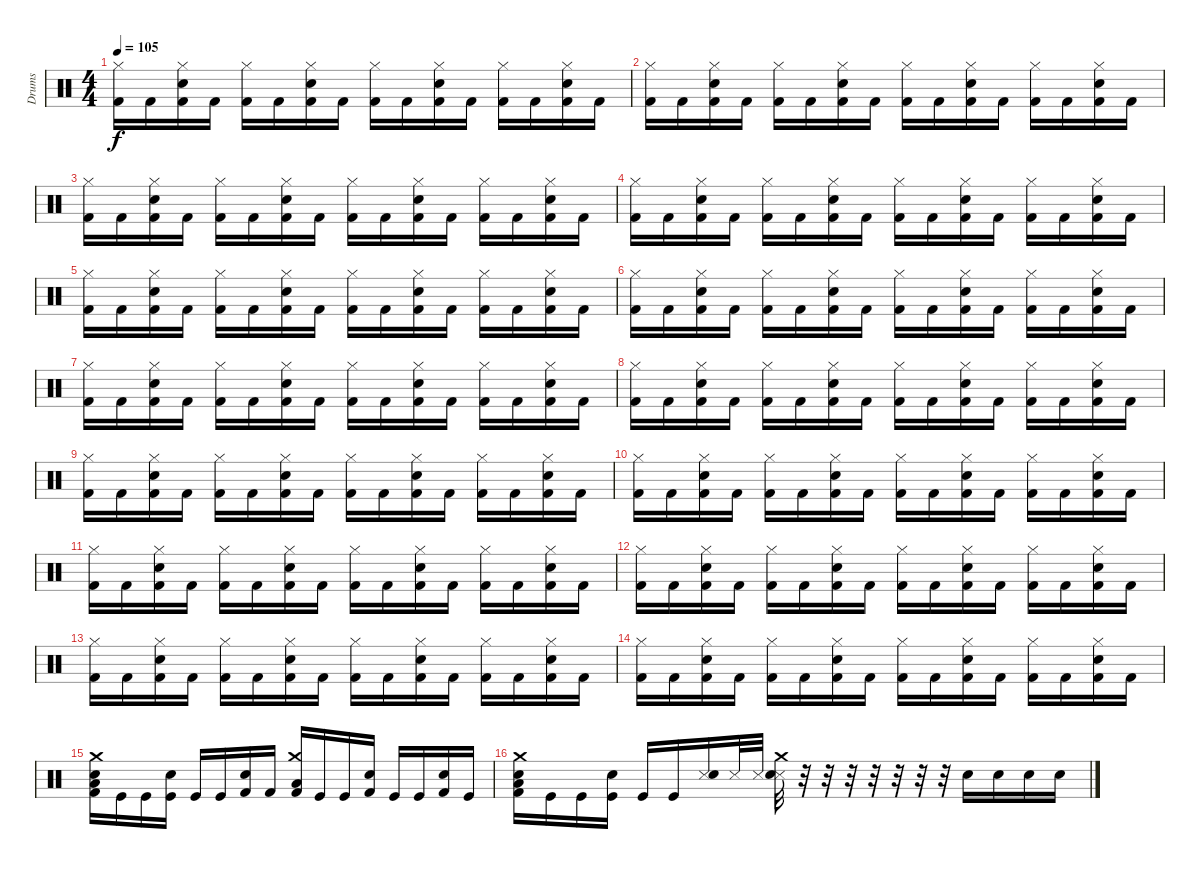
\track ("Drums" "Drums") {instrument percussion}
\staff {score}
\articulation defaults
\ts (4 4)
\tempo 105
\clef neutral
\ks c
("Kick (hit) 2" "Hi-Hat (closed)").16{dy f} "Kick (hit) 2".16 ("Kick (hit) 2" "Snare (hit) 2" "Hi-Hat (closed)").16 "Kick (hit) 2".16 ("Kick (hit) 2" "Hi-Hat (closed)").16 "Kick (hit) 2".16 ("Kick (hit) 2" "Snare (hit) 2" "Hi-Hat (closed)").16 "Kick (hit) 2".16 ("Kick (hit) 2" "Hi-Hat (closed)").16 "Kick (hit) 2".16 ("Kick (hit) 2" "Snare (hit) 2" "Hi-Hat (closed)").16 "Kick (hit) 2".16 ("Kick (hit) 2" "Hi-Hat (closed)").16 "Kick (hit) 2".16 ("Kick (hit) 2" "Snare (hit) 2" "Hi-Hat (closed)").16 "Kick (hit) 2".16 |
("Kick (hit) 2" "Hi-Hat (closed)").16 "Kick (hit) 2".16 ("Kick (hit) 2" "Snare (hit) 2" "Hi-Hat (closed)").16 "Kick (hit) 2".16 ("Kick (hit) 2" "Hi-Hat (closed)").16 "Kick (hit) 2".16 ("Kick (hit) 2" "Snare (hit) 2" "Hi-Hat (closed)").16 "Kick (hit) 2".16 ("Kick (hit) 2" "Hi-Hat (closed)").16 "Kick (hit) 2".16 ("Kick (hit) 2" "Snare (hit) 2" "Hi-Hat (closed)").16 "Kick (hit) 2".16 ("Kick (hit) 2" "Hi-Hat (closed)").16 "Kick (hit) 2".16 ("Kick (hit) 2" "Snare (hit) 2" "Hi-Hat (closed)").16 "Kick (hit) 2".16 |
("Kick (hit) 2" "Hi-Hat (closed)").16 "Kick (hit) 2".16 ("Kick (hit) 2" "Snare (hit) 2" "Hi-Hat (closed)").16 "Kick (hit) 2".16 ("Kick (hit) 2" "Hi-Hat (closed)").16 "Kick (hit) 2".16 ("Kick (hit) 2" "Snare (hit) 2" "Hi-Hat (closed)").16 "Kick (hit) 2".16 ("Kick (hit) 2" "Hi-Hat (closed)").16 "Kick (hit) 2".16 ("Kick (hit) 2" "Snare (hit) 2" "Hi-Hat (closed)").16 "Kick (hit) 2".16 ("Kick (hit) 2" "Hi-Hat (closed)").16 "Kick (hit) 2".16 ("Kick (hit) 2" "Snare (hit) 2" "Hi-Hat (closed)").16 "Kick (hit) 2".16 |
("Kick (hit) 2" "Hi-Hat (closed)").16 "Kick (hit) 2".16 ("Kick (hit) 2" "Snare (hit) 2" "Hi-Hat (closed)").16 "Kick (hit) 2".16 ("Kick (hit) 2" "Hi-Hat (closed)").16 "Kick (hit) 2".16 ("Kick (hit) 2" "Snare (hit) 2" "Hi-Hat (closed)").16 "Kick (hit) 2".16 ("Kick (hit) 2" "Hi-Hat (closed)").16 "Kick (hit) 2".16 ("Kick (hit) 2" "Snare (hit) 2" "Hi-Hat (closed)").16 "Kick (hit) 2".16 ("Kick (hit) 2" "Hi-Hat (closed)").16 "Kick (hit) 2".16 ("Kick (hit) 2" "Snare (hit) 2" "Hi-Hat (closed)").16 "Kick (hit) 2".16 |
("Kick (hit) 2" "Hi-Hat (closed)").16 "Kick (hit) 2".16 ("Kick (hit) 2" "Snare (hit) 2" "Hi-Hat (closed)").16 "Kick (hit) 2".16 ("Kick (hit) 2" "Hi-Hat (closed)").16 "Kick (hit) 2".16 ("Kick (hit) 2" "Snare (hit) 2" "Hi-Hat (closed)").16 "Kick (hit) 2".16 ("Kick (hit) 2" "Hi-Hat (closed)").16 "Kick (hit) 2".16 ("Kick (hit) 2" "Snare (hit) 2" "Hi-Hat (closed)").16 "Kick (hit) 2".16 ("Kick (hit) 2" "Hi-Hat (closed)").16 "Kick (hit) 2".16 ("Kick (hit) 2" "Snare (hit) 2" "Hi-Hat (closed)").16 "Kick (hit) 2".16 |
("Kick (hit) 2" "Hi-Hat (closed)").16 "Kick (hit) 2".16 ("Kick (hit) 2" "Snare (hit) 2" "Hi-Hat (closed)").16 "Kick (hit) 2".16 ("Kick (hit) 2" "Hi-Hat (closed)").16 "Kick (hit) 2".16 ("Kick (hit) 2" "Snare (hit) 2" "Hi-Hat (closed)").16 "Kick (hit) 2".16 ("Kick (hit) 2" "Hi-Hat (closed)").16 "Kick (hit) 2".16 ("Kick (hit) 2" "Snare (hit) 2" "Hi-Hat (closed)").16 "Kick (hit) 2".16 ("Kick (hit) 2" "Hi-Hat (closed)").16 "Kick (hit) 2".16 ("Kick (hit) 2" "Snare (hit) 2" "Hi-Hat (closed)").16 "Kick (hit) 2".16 |
("Kick (hit) 2" "Hi-Hat (closed)").16 "Kick (hit) 2".16 ("Kick (hit) 2" "Snare (hit) 2" "Hi-Hat (closed)").16 "Kick (hit) 2".16 ("Kick (hit) 2" "Hi-Hat (closed)").16 "Kick (hit) 2".16 ("Kick (hit) 2" "Snare (hit) 2" "Hi-Hat (closed)").16 "Kick (hit) 2".16 ("Kick (hit) 2" "Hi-Hat (closed)").16 "Kick (hit) 2".16 ("Kick (hit) 2" "Snare (hit) 2" "Hi-Hat (closed)").16 "Kick (hit) 2".16 ("Kick (hit) 2" "Hi-Hat (closed)").16 "Kick (hit) 2".16 ("Kick (hit) 2" "Snare (hit) 2" "Hi-Hat (closed)").16 "Kick (hit) 2".16 |
("Kick (hit) 2" "Hi-Hat (closed)").16 "Kick (hit) 2".16 ("Kick (hit) 2" "Snare (hit) 2" "Hi-Hat (closed)").16 "Kick (hit) 2".16 ("Kick (hit) 2" "Hi-Hat (closed)").16 "Kick (hit) 2".16 ("Kick (hit) 2" "Snare (hit) 2" "Hi-Hat (closed)").16 "Kick (hit) 2".16 ("Kick (hit) 2" "Hi-Hat (closed)").16 "Kick (hit) 2".16 ("Kick (hit) 2" "Snare (hit) 2" "Hi-Hat (closed)").16 "Kick (hit) 2".16 ("Kick (hit) 2" "Hi-Hat (closed)").16 "Kick (hit) 2".16 ("Kick (hit) 2" "Snare (hit) 2" "Hi-Hat (closed)").16 "Kick (hit) 2".16 |
("Kick (hit) 2" "Hi-Hat (closed)").16 "Kick (hit) 2".16 ("Kick (hit) 2" "Snare (hit) 2" "Hi-Hat (closed)").16 "Kick (hit) 2".16 ("Kick (hit) 2" "Hi-Hat (closed)").16 "Kick (hit) 2".16 ("Kick (hit) 2" "Snare (hit) 2" "Hi-Hat (closed)").16 "Kick (hit) 2".16 ("Kick (hit) 2" "Hi-Hat (closed)").16 "Kick (hit) 2".16 ("Kick (hit) 2" "Snare (hit) 2" "Hi-Hat (closed)").16 "Kick (hit) 2".16 ("Kick (hit) 2" "Hi-Hat (closed)").16 "Kick (hit) 2".16 ("Kick (hit) 2" "Snare (hit) 2" "Hi-Hat (closed)").16 "Kick (hit) 2".16 |
("Kick (hit) 2" "Hi-Hat (closed)").16 "Kick (hit) 2".16 ("Kick (hit) 2" "Snare (hit) 2" "Hi-Hat (closed)").16 "Kick (hit) 2".16 ("Kick (hit) 2" "Hi-Hat (closed)").16 "Kick (hit) 2".16 ("Kick (hit) 2" "Snare (hit) 2" "Hi-Hat (closed)").16 "Kick (hit) 2".16 ("Kick (hit) 2" "Hi-Hat (closed)").16 "Kick (hit) 2".16 ("Kick (hit) 2" "Snare (hit) 2" "Hi-Hat (closed)").16 "Kick (hit) 2".16 ("Kick (hit) 2" "Hi-Hat (closed)").16 "Kick (hit) 2".16 ("Kick (hit) 2" "Snare (hit) 2" "Hi-Hat (closed)").16 "Kick (hit) 2".16 |
("Kick (hit) 2" "Hi-Hat (closed)").16 "Kick (hit) 2".16 ("Kick (hit) 2" "Snare (hit) 2" "Hi-Hat (closed)").16 "Kick (hit) 2".16 ("Kick (hit) 2" "Hi-Hat (closed)").16 "Kick (hit) 2".16 ("Kick (hit) 2" "Snare (hit) 2" "Hi-Hat (closed)").16 "Kick (hit) 2".16 ("Kick (hit) 2" "Hi-Hat (closed)").16 "Kick (hit) 2".16 ("Kick (hit) 2" "Snare (hit) 2" "Hi-Hat (closed)").16 "Kick (hit) 2".16 ("Kick (hit) 2" "Hi-Hat (closed)").16 "Kick (hit) 2".16 ("Kick (hit) 2" "Snare (hit) 2" "Hi-Hat (closed)").16 "Kick (hit) 2".16 |
("Kick (hit) 2" "Hi-Hat (closed)").16 "Kick (hit) 2".16 ("Kick (hit) 2" "Snare (hit) 2" "Hi-Hat (closed)").16 "Kick (hit) 2".16 ("Kick (hit) 2" "Hi-Hat (closed)").16 "Kick (hit) 2".16 ("Kick (hit) 2" "Snare (hit) 2" "Hi-Hat (closed)").16 "Kick (hit) 2".16 ("Kick (hit) 2" "Hi-Hat (closed)").16 "Kick (hit) 2".16 ("Kick (hit) 2" "Snare (hit) 2" "Hi-Hat (closed)").16 "Kick (hit) 2".16 ("Kick (hit) 2" "Hi-Hat (closed)").16 "Kick (hit) 2".16 ("Kick (hit) 2" "Snare (hit) 2" "Hi-Hat (closed)").16 "Kick (hit) 2".16 |
("Kick (hit) 2" "Hi-Hat (closed)").16 "Kick (hit) 2".16 ("Kick (hit) 2" "Snare (hit) 2" "Hi-Hat (closed)").16 "Kick (hit) 2".16 ("Kick (hit) 2" "Hi-Hat (closed)").16 "Kick (hit) 2".16 ("Kick (hit) 2" "Snare (hit) 2" "Hi-Hat (closed)").16 "Kick (hit) 2".16 ("Kick (hit) 2" "Hi-Hat (closed)").16 "Kick (hit) 2".16 ("Kick (hit) 2" "Snare (hit) 2" "Hi-Hat (closed)").16 "Kick (hit) 2".16 ("Kick (hit) 2" "Hi-Hat (closed)").16 "Kick (hit) 2".16 ("Kick (hit) 2" "Snare (hit) 2" "Hi-Hat (closed)").16 "Kick (hit) 2".16 |
("Kick (hit) 2" "Hi-Hat (closed)").16 "Kick (hit) 2".16 ("Kick (hit) 2" "Snare (hit) 2" "Hi-Hat (closed)").16 "Kick (hit) 2".16 ("Kick (hit) 2" "Hi-Hat (closed)").16 "Kick (hit) 2".16 ("Kick (hit) 2" "Snare (hit) 2" "Hi-Hat (closed)").16 "Kick (hit) 2".16 ("Kick (hit) 2" "Hi-Hat (closed)").16 "Kick (hit) 2".16 ("Kick (hit) 2" "Snare (hit) 2" "Hi-Hat (closed)").16 "Kick (hit) 2".16 ("Kick (hit) 2" "Hi-Hat (closed)").16 "Kick (hit) 2".16 ("Kick (hit) 2" "Snare (hit) 2" "Hi-Hat (closed)").16 "Kick (hit) 2".16 |
("Kick (hit) 2" "Low Floor Tom (hit)" "Snare (hit) 2" "Crash medium (hit)").16 "Kick (hit)".16 "Kick (hit)".16 ("Kick (hit)" "Snare (hit) 2").16 "Kick (hit)".16 "Kick (hit)".16 ("Kick (hit) 2" "Snare (hit) 2").16 "Kick (hit) 2".16 ("Kick (hit) 2" "Low Tom (hit)" "Crash medium (hit)").16 "Kick (hit)".16 "Kick (hit)".16 ("Kick (hit) 2" "Snare (hit) 2").16 "Kick (hit)".16 "Kick (hit)".16 ("Kick (hit) 2" "Snare (hit) 2").16 "Kick (hit)".16 |
("Kick (hit) 2" "Low Floor Tom (hit)" "Snare (hit) 2" "Crash medium (hit)").16 "Kick (hit)".16 "Kick (hit)".16 ("Kick (hit)" "Snare (hit) 2").16 "Kick (hit)".16 "Kick (hit)".16 ("Snare (side stick) 3" "Snare (hit) 2").16 "Snare (side stick) 3".32 "Snare (side stick) 3".32 ("Snare (side stick) 3" "Crash medium (hit)" "Snare (hit) 2").32 r.32 r.32 r.32 r.32 r.32 r.32 r.32 "Snare (hit) 2".16 "Snare (hit) 2".16 "Snare (hit) 2".16 "Snare (hit) 2".16
